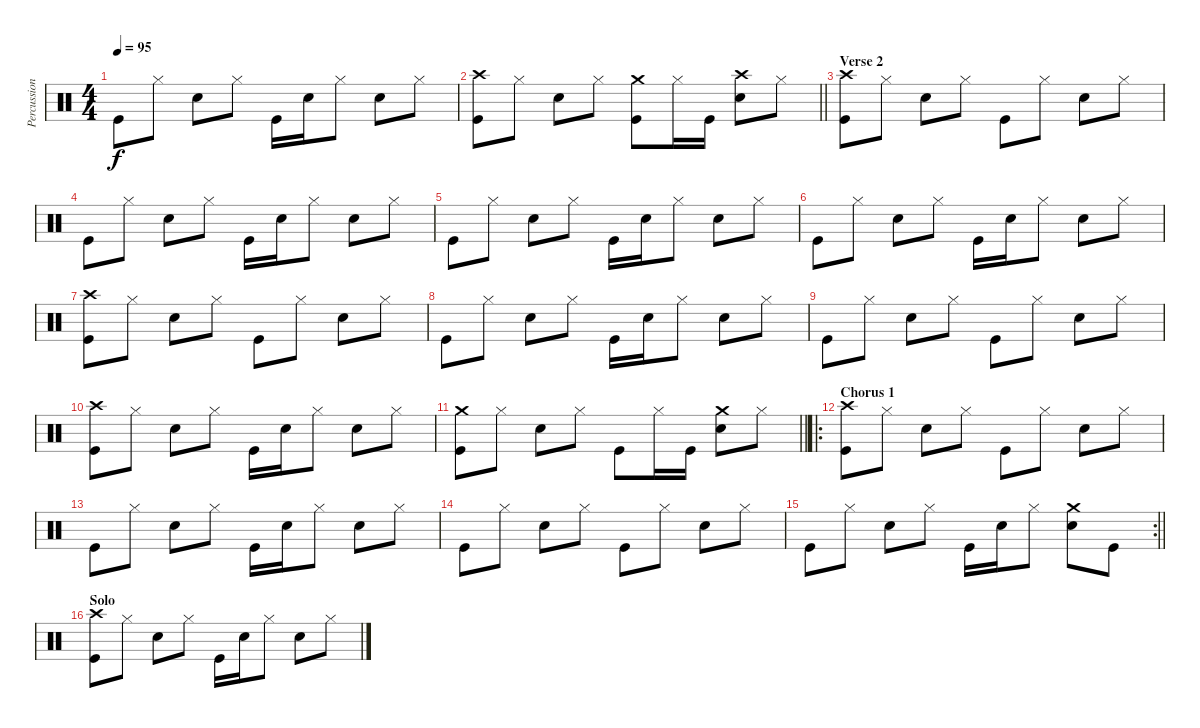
\track ("Percussion" "Percussion") {instrument percussion}
\staff {score}
\articulation defaults
\ts (4 4)
\tempo 95
\clef neutral
\ks c "Kick (hit)".8{dy f} "Hi-Hat (closed)".8 "Snare (hit) 2".8 "Hi-Hat (closed)".8 "Kick (hit)".16 "Snare (hit) 2".16 "Hi-Hat (closed)".8 "Snare (hit) 2".8 "Hi-Hat (closed)".8
|
\barLineRight lightlight
("Kick (hit)" "Crash high (hit)").8 "Hi-Hat (closed)".8 "Snare (hit) 2".8 "Hi-Hat (closed)".8 ("Kick (hit)" "Crash medium (hit)").8 "Hi-Hat (closed)".16 "Kick (hit)".16 ("Crash high (hit)" "Snare (hit) 2").8 "Hi-Hat (closed)".8 |
\section ("" "Verse 2")
("Kick (hit)" "Crash high (hit)").8 "Hi-Hat (closed)".8 "Snare (hit) 2".8 "Hi-Hat (closed)".8 "Kick (hit)".8 "Hi-Hat (closed)".8 "Snare (hit) 2".8 "Hi-Hat (closed)".8 |
"Kick (hit)".8 "Hi-Hat (closed)".8 "Snare (hit) 2".8 "Hi-Hat (closed)".8 "Kick (hit)".16 "Snare (hit) 2".16 "Hi-Hat (closed)".8 "Snare (hit) 2".8 "Hi-Hat (closed)".8 |
"Kick (hit)".8 "Hi-Hat (closed)".8 "Snare (hit) 2".8 "Hi-Hat (closed)".8 "Kick (hit)".16 "Snare (hit) 2".16 "Hi-Hat (closed)".8 "Snare (hit) 2".8 "Hi-Hat (closed)".8 |
"Kick (hit)".8 "Hi-Hat (closed)".8 "Snare (hit) 2".8 "Hi-Hat (closed)".8 "Kick (hit)".16 "Snare (hit) 2".16 "Hi-Hat (closed)".8 "Snare (hit) 2".8 "Hi-Hat (closed)".8 |
("Kick (hit)" "Crash high (hit)").8 "Hi-Hat (closed)".8 "Snare (hit) 2".8 "Hi-Hat (closed)".8 "Kick (hit)".8 "Hi-Hat (closed)".8 "Snare (hit) 2".8 "Hi-Hat (closed)".8 |
"Kick (hit)".8 "Hi-Hat (closed)".8 "Snare (hit) 2".8 "Hi-Hat (closed)".8 "Kick (hit)".16 "Snare (hit) 2".16 "Hi-Hat (closed)".8 "Snare (hit) 2".8 "Hi-Hat (closed)".8 |
"Kick (hit)".8 "Hi-Hat (closed)".8 "Snare (hit) 2".8 "Hi-Hat (closed)".8 "Kick (hit)".8 "Hi-Hat (closed)".8 "Snare (hit) 2".8 "Hi-Hat (closed)".8 |
("Kick (hit)" "Crash high (hit)").8 "Hi-Hat (closed)".8 "Snare (hit) 2".8 "Hi-Hat (closed)".8 "Kick (hit)".16 "Snare (hit) 2".16 "Hi-Hat (closed)".8 "Snare (hit) 2".8 "Hi-Hat (closed)".8 |
\barLineRight lightlight
("Kick (hit)" "Crash medium (hit)").8 "Hi-Hat (closed)".8 "Snare (hit) 2".8 "Hi-Hat (closed)".8 "Kick (hit)".8 "Hi-Hat (closed)".16 "Kick (hit)".16 ("Crash medium (hit)" "Snare (hit) 2").8 "Hi-Hat (closed)".8 |
\ro
\section ("" "Chorus 1")
("Kick (hit)" "Crash high (hit)").8 "Hi-Hat (closed)".8 "Snare (hit) 2".8 "Hi-Hat (closed)".8 "Kick (hit)".8 "Hi-Hat (closed)".8 "Snare (hit) 2".8 "Hi-Hat (closed)".8 |
"Kick (hit)".8 "Hi-Hat (closed)".8 "Snare (hit) 2".8 "Hi-Hat (closed)".8 "Kick (hit)".16 "Snare (hit) 2".16 "Hi-Hat (closed)".8 "Snare (hit) 2".8 "Hi-Hat (closed)".8 |
"Kick (hit)".8 "Hi-Hat (closed)".8 "Snare (hit) 2".8 "Hi-Hat (closed)".8 "Kick (hit)".8 "Hi-Hat (closed)".8 "Snare (hit) 2".8 "Hi-Hat (closed)".8 |
\rc 2
\barLineRight lightlight "Kick (hit)".8 "Hi-Hat (closed)".8 "Snare (hit) 2".8 "Hi-Hat (closed)".8 "Kick (hit)".16 "Snare (hit) 2".16 "Hi-Hat (closed)".8
("Crash medium (hit)" "Snare (hit) 2").8 "Kick (hit)".8 |
\section ("" "Solo")
("Kick (hit)" "Crash high (hit)").8 "Hi-Hat (closed)".8 "Snare (hit) 2".8 "Hi-Hat (closed)".8 "Kick (hit)".16 "Snare (hit) 2".16 "Hi-Hat (closed)".8 "Snare (hit) 2".8 "Hi-Hat (closed)".8
